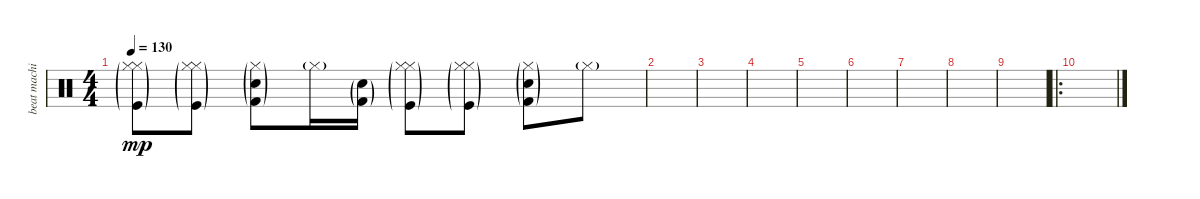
\track ("beat machine" "beat machi") {instrument percussion}
\staff {score}
\articulation defaults
\ts (4 4)
\tempo 130
\clef neutral
\ks c
("Hi-Hat (closed)"{g} "Hi-Hat (closed)"{g} "Kick (hit)"{g}).8{dy mp} ("Hi-Hat (closed)"{g} "Hi-Hat (closed)"{g} "Kick (hit)"{g}).8 ("Hi-Hat (closed)"{g} "Kick (hit) 2"{g} "Snare (hit) 2"{g}).8 "Hi-Hat (closed)"{g}.16 ("Kick (hit) 2"{g} "Snare (hit) 2"{g}).16 ("Hi-Hat (closed)"{g} "Hi-Hat (closed)"{g} "Kick (hit)"{g}).8 ("Hi-Hat (closed)"{g} "Hi-Hat (closed)"{g} "Kick (hit)"{g}).8 ("Hi-Hat (closed)"{g} "Kick (hit) 2"{g} "Snare (hit) 2"{g}).8 "Hi-Hat (closed)"{g}.8 |
|
|
|
|
|
|
|
|
\ro
